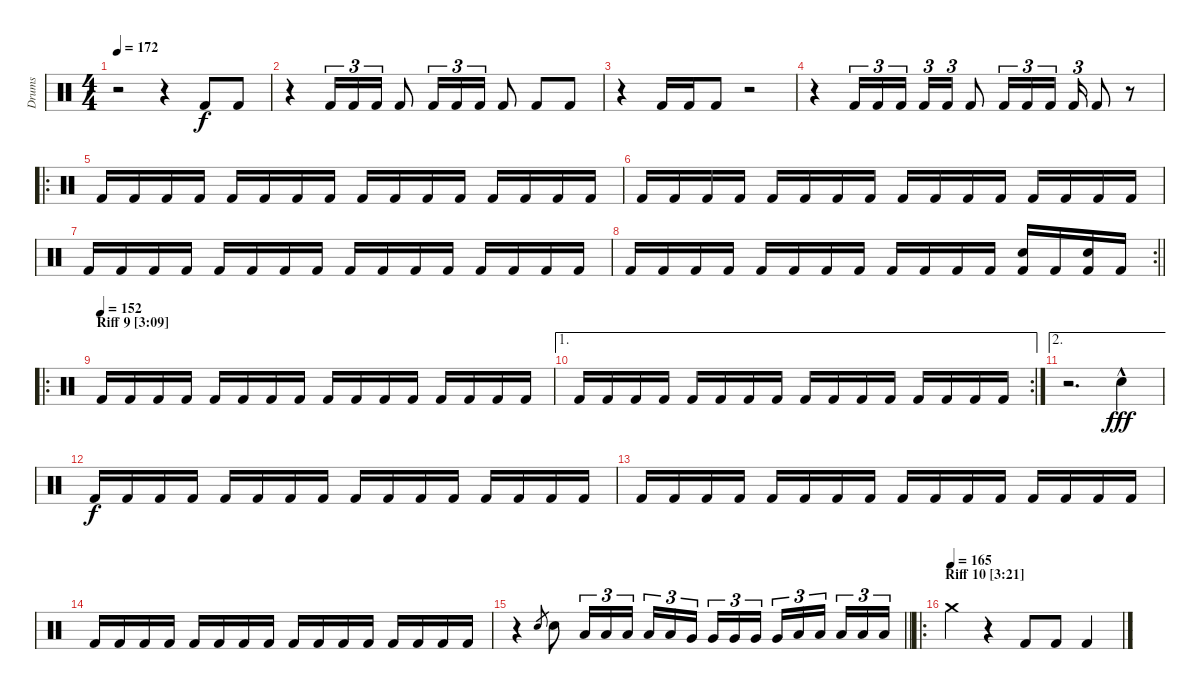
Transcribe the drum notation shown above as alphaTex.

\track ("Drums" "Drums") {instrument percussion}
\staff {score}
\articulation defaults
\ts (4 4)
\tempo 172
\clef neutral
\ks c
r.2{dy f} r.4 "Kick (hit) 2".8 "Kick (hit) 2".8 |
r.4 "Kick (hit) 2".16{tu (3 2)} "Kick (hit) 2".16{tu (3 2)} "Kick (hit) 2".16{tu (3 2)} "Kick (hit) 2".8 "Kick (hit) 2".16{tu (3 2)} "Kick (hit) 2".16{tu (3 2)} "Kick (hit) 2".16{tu (3 2)} "Kick (hit) 2".8 "Kick (hit) 2".8 "Kick (hit) 2".8 |
r.4 "Kick (hit) 2".16 "Kick (hit) 2".16 "Kick (hit) 2".8 r.2 |
r.4 "Kick (hit) 2".16{tu (3 2)} "Kick (hit) 2".16{tu (3 2)} "Kick (hit) 2".16{tu (3 2) beam splitsecondary} "Kick (hit) 2".16{tu (3 2)} "Kick (hit) 2".16{tu (3 2)} "Kick (hit) 2".8 "Kick (hit) 2".16{tu (3 2)} "Kick (hit) 2".16{tu (3 2)} "Kick (hit) 2".16{tu (3 2) beam splitsecondary} "Kick (hit) 2".16{tu (3 2)} "Kick (hit) 2".8 r.8 |
\ro "Kick (hit) 2".16 "Kick (hit) 2".16 "Kick (hit) 2".16 "Kick (hit) 2".16 "Kick (hit) 2".16 "Kick (hit) 2".16 "Kick (hit) 2".16 "Kick (hit) 2".16 "Kick (hit) 2".16 "Kick (hit) 2".16 "Kick (hit) 2".16 "Kick (hit) 2".16 "Kick (hit) 2".16 "Kick (hit) 2".16 "Kick (hit) 2".16 "Kick (hit) 2".16
|
"Kick (hit) 2".16 "Kick (hit) 2".16 "Kick (hit) 2".16 "Kick (hit) 2".16 "Kick (hit) 2".16 "Kick (hit) 2".16 "Kick (hit) 2".16 "Kick (hit) 2".16 "Kick (hit) 2".16 "Kick (hit) 2".16 "Kick (hit) 2".16 "Kick (hit) 2".16 "Kick (hit) 2".16 "Kick (hit) 2".16 "Kick (hit) 2".16 "Kick (hit) 2".16 |
"Kick (hit) 2".16 "Kick (hit) 2".16 "Kick (hit) 2".16 "Kick (hit) 2".16 "Kick (hit) 2".16 "Kick (hit) 2".16 "Kick (hit) 2".16 "Kick (hit) 2".16 "Kick (hit) 2".16 "Kick (hit) 2".16 "Kick (hit) 2".16 "Kick (hit) 2".16 "Kick (hit) 2".16 "Kick (hit) 2".16 "Kick (hit) 2".16 "Kick (hit) 2".16 |
\rc 2
\barLineRight lightlight "Kick (hit) 2".16 "Kick (hit) 2".16 "Kick (hit) 2".16 "Kick (hit) 2".16 "Kick (hit) 2".16 "Kick (hit) 2".16 "Kick (hit) 2".16 "Kick (hit) 2".16 "Kick (hit) 2".16 "Kick (hit) 2".16 "Kick (hit) 2".16 "Kick (hit) 2".16
("Electric Snare (hit)" "Kick (hit) 2").16 "Kick (hit) 2".16 ("Electric Snare (hit)" "Kick (hit) 2").16 "Kick (hit) 2".16 |
\ro
\section ("" "Riff 9 [3:09]")
\tempo (152)
"Kick (hit) 2".16 "Kick (hit) 2".16 "Kick (hit) 2".16 "Kick (hit) 2".16 "Kick (hit) 2".16 "Kick (hit) 2".16 "Kick (hit) 2".16 "Kick (hit) 2".16 "Kick (hit) 2".16 "Kick (hit) 2".16 "Kick (hit) 2".16 "Kick (hit) 2".16 "Kick (hit) 2".16 "Kick (hit) 2".16 "Kick (hit) 2".16 "Kick (hit) 2".16 |
\ae 1
\rc 2 "Kick (hit) 2".16 "Kick (hit) 2".16 "Kick (hit) 2".16 "Kick (hit) 2".16 "Kick (hit) 2".16 "Kick (hit) 2".16 "Kick (hit) 2".16 "Kick (hit) 2".16 "Kick (hit) 2".16 "Kick (hit) 2".16 "Kick (hit) 2".16 "Kick (hit) 2".16 "Kick (hit) 2".16 "Kick (hit) 2".16 "Kick (hit) 2".16 "Kick (hit) 2".16
|
\ae 2
r.2{d} "Electric Snare (hit)"{hac}.4{dy fff} |
"Kick (hit) 2".16{dy f} "Kick (hit) 2".16 "Kick (hit) 2".16 "Kick (hit) 2".16 "Kick (hit) 2".16 "Kick (hit) 2".16 "Kick (hit) 2".16 "Kick (hit) 2".16 "Kick (hit) 2".16 "Kick (hit) 2".16 "Kick (hit) 2".16 "Kick (hit) 2".16 "Kick (hit) 2".16 "Kick (hit) 2".16 "Kick (hit) 2".16 "Kick (hit) 2".16 |
"Kick (hit) 2".16 "Kick (hit) 2".16 "Kick (hit) 2".16 "Kick (hit) 2".16 "Kick (hit) 2".16 "Kick (hit) 2".16 "Kick (hit) 2".16 "Kick (hit) 2".16 "Kick (hit) 2".16 "Kick (hit) 2".16 "Kick (hit) 2".16 "Kick (hit) 2".16 "Kick (hit) 2".16 "Kick (hit) 2".16 "Kick (hit) 2".16 "Kick (hit) 2".16 |
"Kick (hit) 2".16 "Kick (hit) 2".16 "Kick (hit) 2".16 "Kick (hit) 2".16 "Kick (hit) 2".16 "Kick (hit) 2".16 "Kick (hit) 2".16 "Kick (hit) 2".16 "Kick (hit) 2".16 "Kick (hit) 2".16 "Kick (hit) 2".16 "Kick (hit) 2".16 "Kick (hit) 2".16 "Kick (hit) 2".16 "Kick (hit) 2".16 "Kick (hit) 2".16 |
\barLineRight lightlight
r.4 "Electric Snare (hit)".8{gr} "Electric Snare (hit)".8 "Low Tom (hit)".16{tu (3 2)} "Low Tom (hit)".16{tu (3 2)} "Low Tom (hit)".16{tu (3 2)} "Low Tom (hit)".16{tu (3 2)} "Low Tom (hit)".16{tu (3 2)} "Very Low Tom (hit)".16{tu (3 2) beam splitsecondary} "Very Low Tom (hit)".16{tu (3 2)} "Very Low Tom (hit)".16{tu (3 2)} "Very Low Tom (hit)".16{tu (3 2)} "Very Low Tom (hit)".16{tu (3 2)} "Low Floor Tom (hit)".16{tu (3 2)} "Low Floor Tom (hit)".16{tu (3 2) beam splitsecondary} "Low Floor Tom (hit)".16{tu (3 2)} "Low Floor Tom (hit)".16{tu (3 2)} "Low Floor Tom (hit)".16{tu (3 2)} |
\ro
\section ("" "Riff 10 [3:21]")
\tempo (165)
"Crash medium (hit)".4 r.4 "Kick (hit) 2".8 "Kick (hit) 2".8 "Kick (hit) 2".4
